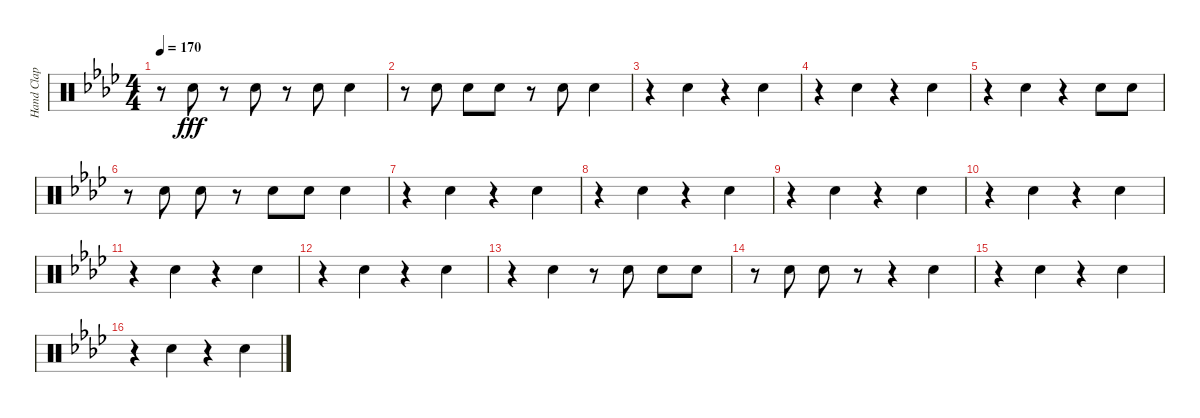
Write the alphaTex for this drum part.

\track ("Hand Clap" "Hand Clap") {instrument percussion}
\staff {score}
\articulation defaults
\ts (4 4)
\tempo 170
\clef neutral
\ks ab
r.8{dy fff} "Hand Clap (hit)".8 r.8 "Hand Clap (hit)".8 r.8 "Hand Clap (hit)".8 "Hand Clap (hit)".4 |
r.8 "Hand Clap (hit)".8 "Hand Clap (hit)".8 "Hand Clap (hit)".8 r.8 "Hand Clap (hit)".8 "Hand Clap (hit)".4 |
r.4 "Hand Clap (hit)".4 r.4 "Hand Clap (hit)".4 |
r.4 "Hand Clap (hit)".4 r.4 "Hand Clap (hit)".4 |
r.4 "Hand Clap (hit)".4 r.4 "Hand Clap (hit)".8 "Hand Clap (hit)".8 |
r.8 "Hand Clap (hit)".8 "Hand Clap (hit)".8 r.8 "Hand Clap (hit)".8 "Hand Clap (hit)".8 "Hand Clap (hit)".4 |
r.4 "Hand Clap (hit)".4 r.4 "Hand Clap (hit)".4 |
r.4 "Hand Clap (hit)".4 r.4 "Hand Clap (hit)".4 |
r.4 "Hand Clap (hit)".4 r.4 "Hand Clap (hit)".4 |
r.4 "Hand Clap (hit)".4 r.4 "Hand Clap (hit)".4 |
r.4 "Hand Clap (hit)".4 r.4 "Hand Clap (hit)".4 |
r.4 "Hand Clap (hit)".4 r.4 "Hand Clap (hit)".4 |
r.4 "Hand Clap (hit)".4 r.8 "Hand Clap (hit)".8 "Hand Clap (hit)".8 "Hand Clap (hit)".8 |
r.8 "Hand Clap (hit)".8 "Hand Clap (hit)".8 r.8 r.4 "Hand Clap (hit)".4 |
r.4 "Hand Clap (hit)".4 r.4 "Hand Clap (hit)".4 |
r.4 "Hand Clap (hit)".4 r.4 "Hand Clap (hit)".4
